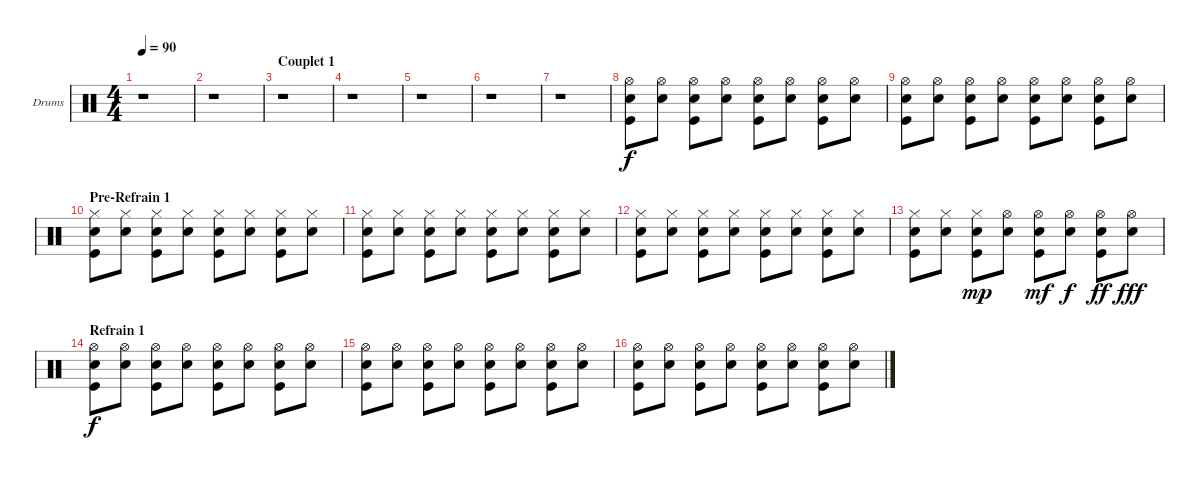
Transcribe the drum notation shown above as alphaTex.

\bracketExtendMode groupsimilarinstruments
\firstSystemTrackNameOrientation horizontal
\otherSystemsTrackNameOrientation horizontal
\track ("Drumkit" "Drums") {instrument percussion}
\staff {score}
\articulation defaults
\ts (4 4)
\tempo 90
\clef neutral
\ks c
r.1{dy f} |
r.1 |
\section ("" "Couplet 1")
r.1 |
r.1 |
r.1 |
r.1 |
r.1 |
("Hi-Hat (open)" "Snare (hit) 2" "Kick (hit)").8 ("Hi-Hat (open)" "Snare (hit) 2").8 ("Hi-Hat (open)" "Snare (hit) 2" "Kick (hit)").8 ("Hi-Hat (open)" "Snare (hit) 2").8 ("Hi-Hat (open)" "Snare (hit) 2" "Kick (hit)").8 ("Hi-Hat (open)" "Snare (hit) 2").8 ("Hi-Hat (open)" "Snare (hit) 2" "Kick (hit)").8 ("Hi-Hat (open)" "Snare (hit) 2").8 |
("Hi-Hat (open)" "Snare (hit) 2" "Kick (hit)").8 ("Hi-Hat (open)" "Snare (hit) 2").8 ("Hi-Hat (open)" "Snare (hit) 2" "Kick (hit)").8 ("Hi-Hat (open)" "Snare (hit) 2").8 ("Hi-Hat (open)" "Snare (hit) 2" "Kick (hit)").8 ("Hi-Hat (open)" "Snare (hit) 2").8 ("Hi-Hat (open)" "Snare (hit) 2" "Kick (hit)").8 ("Hi-Hat (open)" "Snare (hit) 2").8 |
\section ("" "Pre-Refrain 1")
("Hi-Hat (closed)" "Snare (hit) 2" "Kick (hit)").8 ("Hi-Hat (closed)" "Snare (hit) 2").8 ("Hi-Hat (closed)" "Snare (hit) 2" "Kick (hit)").8 ("Hi-Hat (closed)" "Snare (hit) 2").8 ("Hi-Hat (closed)" "Snare (hit) 2" "Kick (hit)").8 ("Hi-Hat (closed)" "Snare (hit) 2").8 ("Hi-Hat (closed)" "Snare (hit) 2" "Kick (hit)").8 ("Hi-Hat (closed)" "Snare (hit) 2").8 |
("Hi-Hat (closed)" "Snare (hit) 2" "Kick (hit)").8 ("Hi-Hat (closed)" "Snare (hit) 2").8 ("Hi-Hat (closed)" "Snare (hit) 2" "Kick (hit)").8 ("Hi-Hat (closed)" "Snare (hit) 2").8 ("Hi-Hat (closed)" "Snare (hit) 2" "Kick (hit)").8 ("Hi-Hat (closed)" "Snare (hit) 2").8 ("Hi-Hat (closed)" "Snare (hit) 2" "Kick (hit)").8 ("Hi-Hat (closed)" "Snare (hit) 2").8 |
("Hi-Hat (closed)" "Snare (hit) 2" "Kick (hit)").8 ("Hi-Hat (closed)" "Snare (hit) 2").8 ("Hi-Hat (closed)" "Snare (hit) 2" "Kick (hit)").8 ("Hi-Hat (closed)" "Snare (hit) 2").8 ("Hi-Hat (closed)" "Snare (hit) 2" "Kick (hit)").8 ("Hi-Hat (closed)" "Snare (hit) 2").8 ("Hi-Hat (closed)" "Snare (hit) 2" "Kick (hit)").8 ("Hi-Hat (closed)" "Snare (hit) 2").8 |
("Hi-Hat (closed)" "Snare (hit) 2" "Kick (hit)").8 ("Hi-Hat (closed)" "Snare (hit) 2").8 ("Hi-Hat (closed)" "Snare (hit) 2" "Kick (hit)").8{dy mp} ("Hi-Hat (open)" "Snare (hit) 2").8 ("Hi-Hat (open)" "Snare (hit) 2" "Kick (hit)").8{dy mf} ("Hi-Hat (open)" "Snare (hit) 2").8{dy f} ("Hi-Hat (open)" "Snare (hit) 2" "Kick (hit)").8{dy ff} ("Hi-Hat (open)" "Snare (hit) 2").8{dy fff} |
\section ("" "Refrain 1")
("Hi-Hat (open)" "Snare (hit) 2" "Kick (hit)").8{dy f} ("Hi-Hat (open)" "Snare (hit) 2").8 ("Hi-Hat (open)" "Snare (hit) 2" "Kick (hit)").8 ("Hi-Hat (open)" "Snare (hit) 2").8 ("Hi-Hat (open)" "Snare (hit) 2" "Kick (hit)").8 ("Hi-Hat (open)" "Snare (hit) 2").8 ("Hi-Hat (open)" "Snare (hit) 2" "Kick (hit)").8 ("Hi-Hat (open)" "Snare (hit) 2").8 |
("Hi-Hat (open)" "Snare (hit) 2" "Kick (hit)").8 ("Hi-Hat (open)" "Snare (hit) 2").8 ("Hi-Hat (open)" "Snare (hit) 2" "Kick (hit)").8 ("Hi-Hat (open)" "Snare (hit) 2").8 ("Hi-Hat (open)" "Snare (hit) 2" "Kick (hit)").8 ("Hi-Hat (open)" "Snare (hit) 2").8 ("Hi-Hat (open)" "Snare (hit) 2" "Kick (hit)").8 ("Hi-Hat (open)" "Snare (hit) 2").8 |
("Hi-Hat (open)" "Snare (hit) 2" "Kick (hit)").8 ("Hi-Hat (open)" "Snare (hit) 2").8 ("Hi-Hat (open)" "Snare (hit) 2" "Kick (hit)").8 ("Hi-Hat (open)" "Snare (hit) 2").8 ("Hi-Hat (open)" "Snare (hit) 2" "Kick (hit)").8 ("Hi-Hat (open)" "Snare (hit) 2").8 ("Hi-Hat (open)" "Snare (hit) 2" "Kick (hit)").8 ("Hi-Hat (open)" "Snare (hit) 2").8
